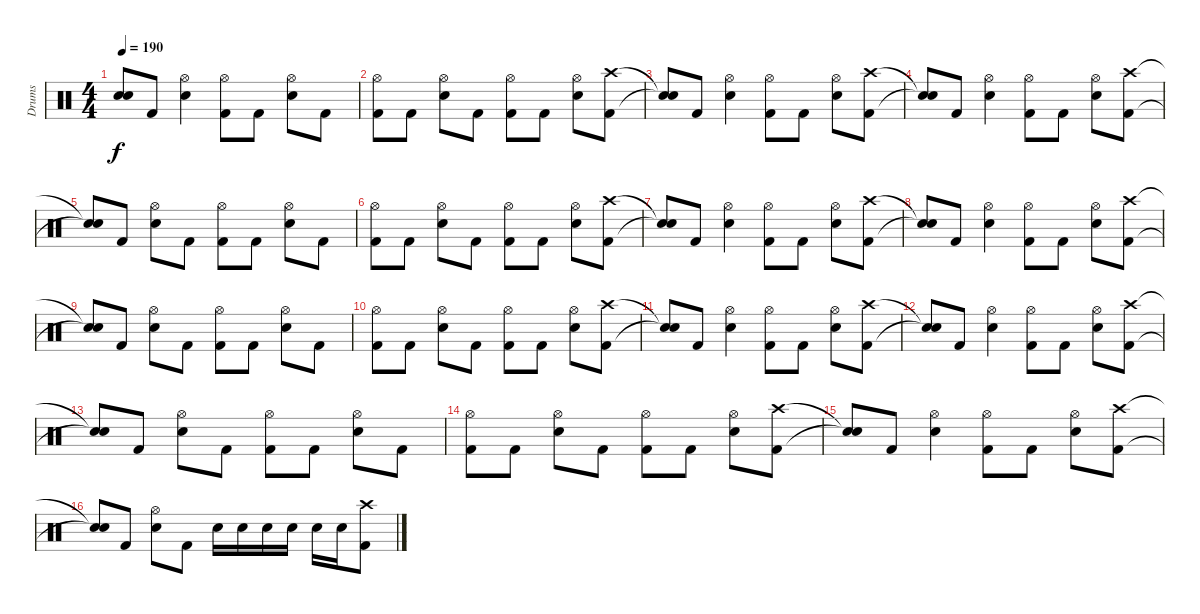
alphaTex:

\track ("Drums" "Drums") {instrument percussion}
\staff {score}
\articulation defaults
\ts (4 4)
\tempo 190
\clef neutral
\ks c
("Snare (hit)"{t} "Snare (hit)"{t}).8{dy f} "Kick (hit) 2".8 ("Hi-Hat (open)" "Electric Snare (hit)").4 ("Hi-Hat (open)" "Kick (hit) 2").8 "Kick (hit) 2".8 ("Hi-Hat (open)" "Electric Snare (hit)").8 "Kick (hit) 2".8 |
("Hi-Hat (open)" "Kick (hit) 2").8 "Kick (hit) 2".8 ("Hi-Hat (open)" "Electric Snare (hit)").8 "Kick (hit) 2".8 ("Hi-Hat (open)" "Kick (hit) 2").8 "Kick (hit) 2".8 ("Hi-Hat (open)" "Electric Snare (hit)").8 ("Crash high (hit)" "Kick (hit) 2").8 |
("Snare (hit)"{t} "Snare (hit)"{t}).8 "Kick (hit) 2".8 ("Hi-Hat (open)" "Electric Snare (hit)").4 ("Hi-Hat (open)" "Kick (hit) 2").8 "Kick (hit) 2".8 ("Hi-Hat (open)" "Electric Snare (hit)").8 ("Crash high (hit)" "Kick (hit) 2").8 |
("Snare (hit)"{t} "Snare (hit)"{t}).8 "Kick (hit) 2".8 ("Hi-Hat (open)" "Electric Snare (hit)").4 ("Hi-Hat (open)" "Kick (hit) 2").8 "Kick (hit) 2".8 ("Hi-Hat (open)" "Electric Snare (hit)").8 ("Crash high (hit)" "Kick (hit) 2").8 |
("Snare (hit)"{t} "Snare (hit)"{t}).8 "Kick (hit) 2".8 ("Hi-Hat (open)" "Electric Snare (hit)").8 "Kick (hit) 2".8 ("Hi-Hat (open)" "Kick (hit) 2").8 "Kick (hit) 2".8 ("Hi-Hat (open)" "Electric Snare (hit)").8 "Kick (hit) 2".8 |
("Hi-Hat (open)" "Kick (hit) 2").8 "Kick (hit) 2".8 ("Hi-Hat (open)" "Electric Snare (hit)").8 "Kick (hit) 2".8 ("Hi-Hat (open)" "Kick (hit) 2").8 "Kick (hit) 2".8 ("Hi-Hat (open)" "Electric Snare (hit)").8 ("Crash high (hit)" "Kick (hit) 2").8 |
("Snare (hit)"{t} "Snare (hit)"{t}).8 "Kick (hit) 2".8 ("Hi-Hat (open)" "Electric Snare (hit)").4 ("Hi-Hat (open)" "Kick (hit) 2").8 "Kick (hit) 2".8 ("Hi-Hat (open)" "Electric Snare (hit)").8 ("Crash high (hit)" "Kick (hit) 2").8 |
("Snare (hit)"{t} "Snare (hit)"{t}).8 "Kick (hit) 2".8 ("Hi-Hat (open)" "Electric Snare (hit)").4 ("Hi-Hat (open)" "Kick (hit) 2").8 "Kick (hit) 2".8 ("Hi-Hat (open)" "Electric Snare (hit)").8 ("Crash high (hit)" "Kick (hit) 2").8 |
("Snare (hit)"{t} "Snare (hit)"{t}).8 "Kick (hit) 2".8 ("Hi-Hat (open)" "Electric Snare (hit)").8 "Kick (hit) 2".8 ("Hi-Hat (open)" "Kick (hit) 2").8 "Kick (hit) 2".8 ("Hi-Hat (open)" "Electric Snare (hit)").8 "Kick (hit) 2".8 |
("Hi-Hat (open)" "Kick (hit) 2").8 "Kick (hit) 2".8 ("Hi-Hat (open)" "Electric Snare (hit)").8 "Kick (hit) 2".8 ("Hi-Hat (open)" "Kick (hit) 2").8 "Kick (hit) 2".8 ("Hi-Hat (open)" "Electric Snare (hit)").8 ("Crash high (hit)" "Kick (hit) 2").8 |
("Snare (hit)"{t} "Snare (hit)"{t}).8 "Kick (hit) 2".8 ("Hi-Hat (open)" "Electric Snare (hit)").4 ("Hi-Hat (open)" "Kick (hit) 2").8 "Kick (hit) 2".8 ("Hi-Hat (open)" "Electric Snare (hit)").8 ("Crash high (hit)" "Kick (hit) 2").8 |
("Snare (hit)"{t} "Snare (hit)"{t}).8 "Kick (hit) 2".8 ("Hi-Hat (open)" "Electric Snare (hit)").4 ("Hi-Hat (open)" "Kick (hit) 2").8 "Kick (hit) 2".8 ("Hi-Hat (open)" "Electric Snare (hit)").8 ("Crash high (hit)" "Kick (hit) 2").8 |
("Snare (hit)"{t} "Snare (hit)"{t}).8 "Kick (hit) 2".8 ("Hi-Hat (open)" "Electric Snare (hit)").8 "Kick (hit) 2".8 ("Hi-Hat (open)" "Kick (hit) 2").8 "Kick (hit) 2".8 ("Hi-Hat (open)" "Electric Snare (hit)").8 "Kick (hit) 2".8 |
("Hi-Hat (open)" "Kick (hit) 2").8 "Kick (hit) 2".8 ("Hi-Hat (open)" "Electric Snare (hit)").8 "Kick (hit) 2".8 ("Hi-Hat (open)" "Kick (hit) 2").8 "Kick (hit) 2".8 ("Hi-Hat (open)" "Electric Snare (hit)").8 ("Crash high (hit)" "Kick (hit) 2").8 |
("Snare (hit)"{t} "Snare (hit)"{t}).8 "Kick (hit) 2".8 ("Hi-Hat (open)" "Electric Snare (hit)").4 ("Hi-Hat (open)" "Kick (hit) 2").8 "Kick (hit) 2".8 ("Hi-Hat (open)" "Electric Snare (hit)").8 ("Crash high (hit)" "Kick (hit) 2").8 |
("Snare (hit)"{t} "Snare (hit)"{t}).8 "Kick (hit) 2".8 ("Hi-Hat (open)" "Electric Snare (hit)").8 "Kick (hit) 2".8 "Electric Snare (hit)".16 "Electric Snare (hit)".16 "Electric Snare (hit)".16 "Electric Snare (hit)".16 "Electric Snare (hit)".16 "Electric Snare (hit)".16 ("Crash high (hit)" "Kick (hit) 2").8
